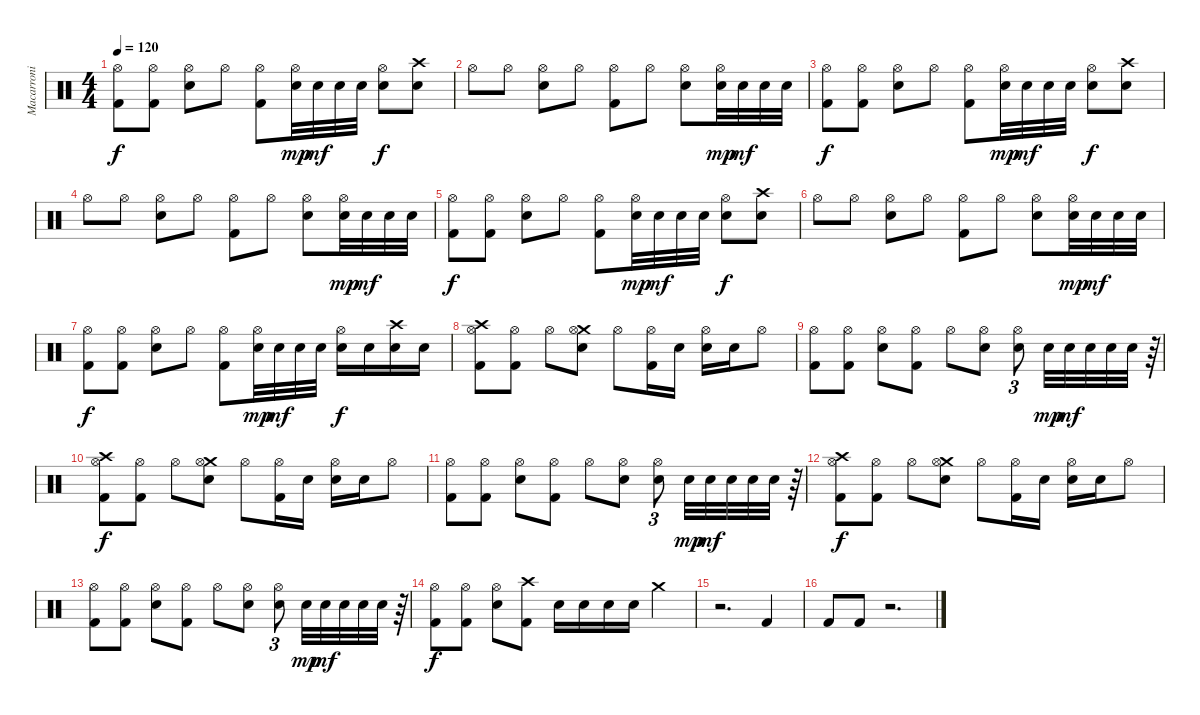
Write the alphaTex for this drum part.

\track ("Macarroni" "Macarroni") {instrument percussion}
\staff {score}
\articulation defaults
\ts (4 4)
\tempo 120
\clef neutral
\ks c
("Hi-Hat (open)" "Kick (hit) 2").8{dy f} ("Hi-Hat (open)" "Kick (hit) 2").8 ("Hi-Hat (open)" "Electric Snare (hit)").8 "Hi-Hat (open)".8 ("Hi-Hat (open)" "Kick (hit) 2").8 ("Hi-Hat (open)" "Electric Snare (hit)").32{dy mp} "Electric Snare (hit)".32{dy mf} "Electric Snare (hit)".32 "Electric Snare (hit)".32 ("Hi-Hat (open)" "Electric Snare (hit)").8{dy f} ("Crash high (hit)" "Electric Snare (hit)").8 |
"Hi-Hat (open)".8 "Hi-Hat (open)".8 ("Hi-Hat (open)" "Electric Snare (hit)").8 "Hi-Hat (open)".8 ("Hi-Hat (open)" "Kick (hit) 2").8 "Hi-Hat (open)".8 ("Hi-Hat (open)" "Electric Snare (hit)").8 ("Hi-Hat (open)" "Electric Snare (hit)").32{dy mp} "Electric Snare (hit)".32{dy mf} "Electric Snare (hit)".32 "Electric Snare (hit)".32 |
("Hi-Hat (open)" "Kick (hit) 2").8{dy f} ("Hi-Hat (open)" "Kick (hit) 2").8 ("Hi-Hat (open)" "Electric Snare (hit)").8 "Hi-Hat (open)".8 ("Hi-Hat (open)" "Kick (hit) 2").8 ("Hi-Hat (open)" "Electric Snare (hit)").32{dy mp} "Electric Snare (hit)".32{dy mf} "Electric Snare (hit)".32 "Electric Snare (hit)".32 ("Hi-Hat (open)" "Electric Snare (hit)").8{dy f} ("Crash high (hit)" "Electric Snare (hit)").8 |
"Hi-Hat (open)".8 "Hi-Hat (open)".8 ("Hi-Hat (open)" "Electric Snare (hit)").8 "Hi-Hat (open)".8 ("Hi-Hat (open)" "Kick (hit) 2").8 "Hi-Hat (open)".8 ("Hi-Hat (open)" "Electric Snare (hit)").8 ("Hi-Hat (open)" "Electric Snare (hit)").32{dy mp} "Electric Snare (hit)".32{dy mf} "Electric Snare (hit)".32 "Electric Snare (hit)".32 |
("Hi-Hat (open)" "Kick (hit) 2").8{dy f} ("Hi-Hat (open)" "Kick (hit) 2").8 ("Hi-Hat (open)" "Electric Snare (hit)").8 "Hi-Hat (open)".8 ("Hi-Hat (open)" "Kick (hit) 2").8 ("Hi-Hat (open)" "Electric Snare (hit)").32{dy mp} "Electric Snare (hit)".32{dy mf} "Electric Snare (hit)".32 "Electric Snare (hit)".32 ("Hi-Hat (open)" "Electric Snare (hit)").8{dy f} ("Crash high (hit)" "Electric Snare (hit)").8 |
"Hi-Hat (open)".8 "Hi-Hat (open)".8 ("Hi-Hat (open)" "Electric Snare (hit)").8 "Hi-Hat (open)".8 ("Hi-Hat (open)" "Kick (hit) 2").8 "Hi-Hat (open)".8 ("Hi-Hat (open)" "Electric Snare (hit)").8 ("Hi-Hat (open)" "Electric Snare (hit)").32{dy mp} "Electric Snare (hit)".32{dy mf} "Electric Snare (hit)".32 "Electric Snare (hit)".32 |
("Hi-Hat (open)" "Kick (hit) 2").8{dy f} ("Hi-Hat (open)" "Kick (hit) 2").8 ("Hi-Hat (open)" "Electric Snare (hit)").8 "Hi-Hat (open)".8 ("Hi-Hat (open)" "Kick (hit) 2").8 ("Hi-Hat (open)" "Electric Snare (hit)").32{dy mp} "Electric Snare (hit)".32{dy mf} "Electric Snare (hit)".32 "Electric Snare (hit)".32 ("Hi-Hat (open)" "Electric Snare (hit)").16{dy f} "Electric Snare (hit)".16 ("Crash high (hit)" "Electric Snare (hit)").16 "Electric Snare (hit)".16 |
("Crash high (hit)" "Hi-Hat (open)" "Kick (hit) 2").8 ("Hi-Hat (open)" "Kick (hit) 2").8 "Hi-Hat (open)".8 ("Crash medium (hit)" "Hi-Hat (open)" "Electric Snare (hit)").8 "Hi-Hat (open)".8 ("Hi-Hat (open)" "Kick (hit) 2").16 "Electric Snare (hit)".16 ("Hi-Hat (open)" "Electric Snare (hit)").16 "Electric Snare (hit)".16 "Hi-Hat (open)".8 |
("Hi-Hat (open)" "Kick (hit) 2").8 ("Hi-Hat (open)" "Kick (hit) 2").8 ("Hi-Hat (open)" "Electric Snare (hit)").8 ("Hi-Hat (open)" "Kick (hit) 2").8 "Hi-Hat (open)".8 ("Hi-Hat (open)" "Electric Snare (hit)").8 ("Hi-Hat (open)" "Electric Snare (hit)").8{tu (3 2)} "Electric Snare (hit)".32{dy mp} "Electric Snare (hit)".32{dy mf} "Electric Snare (hit)".32 "Electric Snare (hit)".32 "Electric Snare (hit)".32 r.64{tu (3 2)} |
("Crash high (hit)" "Hi-Hat (open)" "Kick (hit) 2").8{dy f} ("Hi-Hat (open)" "Kick (hit) 2").8 "Hi-Hat (open)".8 ("Crash medium (hit)" "Hi-Hat (open)" "Electric Snare (hit)").8 "Hi-Hat (open)".8 ("Hi-Hat (open)" "Kick (hit) 2").16 "Electric Snare (hit)".16 ("Hi-Hat (open)" "Electric Snare (hit)").16 "Electric Snare (hit)".16 "Hi-Hat (open)".8 |
("Hi-Hat (open)" "Kick (hit) 2").8 ("Hi-Hat (open)" "Kick (hit) 2").8 ("Hi-Hat (open)" "Electric Snare (hit)").8 ("Hi-Hat (open)" "Kick (hit) 2").8 "Hi-Hat (open)".8 ("Hi-Hat (open)" "Electric Snare (hit)").8 ("Hi-Hat (open)" "Electric Snare (hit)").8{tu (3 2)} "Electric Snare (hit)".32{dy mp} "Electric Snare (hit)".32{dy mf} "Electric Snare (hit)".32 "Electric Snare (hit)".32 "Electric Snare (hit)".32 r.64{tu (3 2)} |
("Crash high (hit)" "Hi-Hat (open)" "Kick (hit) 2").8{dy f} ("Hi-Hat (open)" "Kick (hit) 2").8 "Hi-Hat (open)".8 ("Crash medium (hit)" "Hi-Hat (open)" "Electric Snare (hit)").8 "Hi-Hat (open)".8 ("Hi-Hat (open)" "Kick (hit) 2").16 "Electric Snare (hit)".16 ("Hi-Hat (open)" "Electric Snare (hit)").16 "Electric Snare (hit)".16 "Hi-Hat (open)".8 |
("Hi-Hat (open)" "Kick (hit) 2").8 ("Hi-Hat (open)" "Kick (hit) 2").8 ("Hi-Hat (open)" "Electric Snare (hit)").8 ("Hi-Hat (open)" "Kick (hit) 2").8 "Hi-Hat (open)".8 ("Hi-Hat (open)" "Electric Snare (hit)").8 ("Hi-Hat (open)" "Electric Snare (hit)").8{tu (3 2)} "Electric Snare (hit)".32{dy mp} "Electric Snare (hit)".32{dy mf} "Electric Snare (hit)".32 "Electric Snare (hit)".32 "Electric Snare (hit)".32 r.64{tu (3 2)} |
("Hi-Hat (open)" "Kick (hit) 2").8{dy f} ("Hi-Hat (open)" "Kick (hit) 2").8 ("Hi-Hat (open)" "Electric Snare (hit)").8 ("Crash high (hit)" "Kick (hit) 2").8 "Electric Snare (hit)".16 "Electric Snare (hit)".16 "Electric Snare (hit)".16 "Electric Snare (hit)".16 "Crash medium (hit)".4 |
r.2{d} "Kick (hit) 2".4 |
"Kick (hit) 2".8 "Kick (hit) 2".8 r.2{d}
